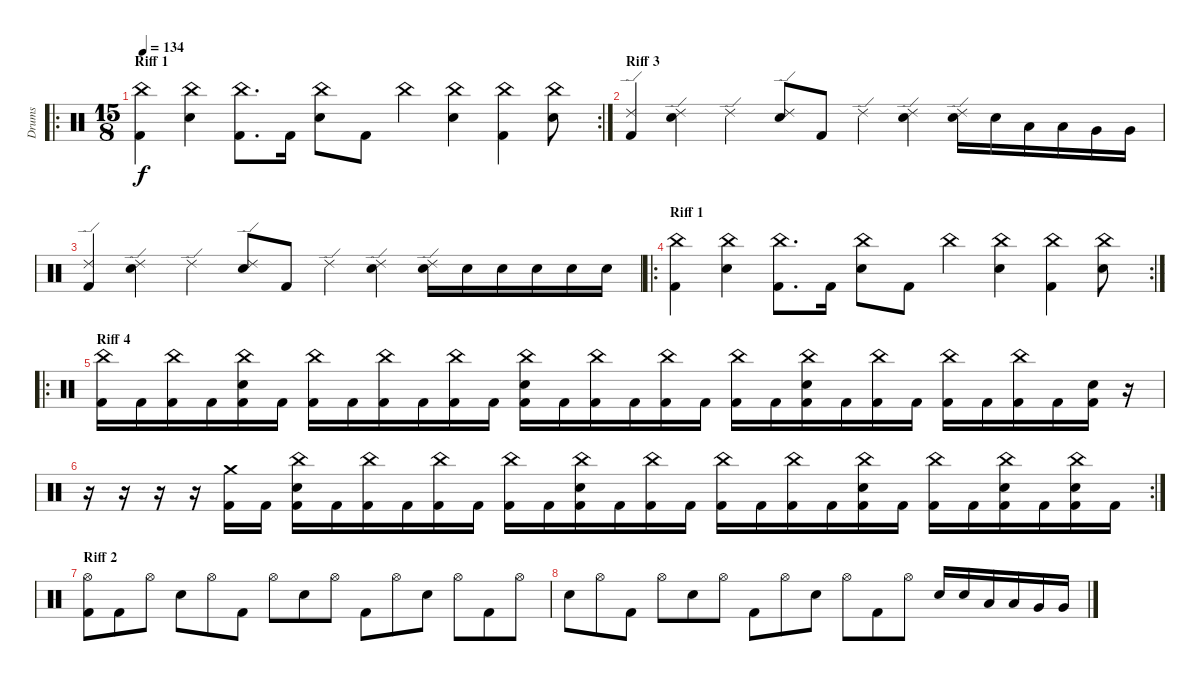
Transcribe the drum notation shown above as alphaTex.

\track ("Drums" "Drums") {instrument percussion}
\staff {score}
\articulation defaults
\ro
\rc 2
\ts (15 8)
\section ("" "Riff 1")
\tempo 134
\clef neutral
\ks c
("Kick (hit) 2" "China (hit)").4{dy f} ("Snare (hit) 2" "China (hit)").4 ("Kick (hit) 2" "China (hit)").8{d} "Kick (hit) 2".16 ("Snare (hit) 2" "China (hit)").8 "Kick (hit) 2".8 "China (hit)".4 ("Snare (hit) 2" "China (hit)").4 ("Kick (hit) 2" "China (hit)").4 ("Snare (hit) 2" "China (hit)").8 |
\section ("" "Riff 3")
("Kick (hit) 2" "Ride (edge) 2").4 ("Snare (hit) 2" "Ride (edge) 2").4 "Ride (edge) 2".4 ("Snare (hit) 2" "Ride (edge) 2").8 "Kick (hit) 2".8 "Ride (edge) 2".4 ("Snare (hit) 2" "Ride (edge) 2").4 ("Snare (hit) 2" "Ride (edge) 2").16 "Snare (hit) 2".16 "Low Tom (hit)".16 "Low Tom (hit)".16 "Very Low Tom (hit)".16 "Very Low Tom (hit)".16 |
("Kick (hit) 2" "Ride (edge) 2").4 ("Snare (hit) 2" "Ride (edge) 2").4 "Ride (edge) 2".4 ("Snare (hit) 2" "Ride (edge) 2").8 "Kick (hit) 2".8 "Ride (edge) 2".4 ("Snare (hit) 2" "Ride (edge) 2").4 ("Snare (hit) 2" "Ride (edge) 2").16 "Snare (hit) 2".16 "Snare (hit) 2".16 "Snare (hit) 2".16 "Snare (hit) 2".16 "Snare (hit) 2".16 |
\ro
\rc 2
\section ("" "Riff 1")
("Kick (hit) 2" "China (hit)").4 ("Snare (hit) 2" "China (hit)").4 ("Kick (hit) 2" "China (hit)").8{d} "Kick (hit) 2".16 ("Snare (hit) 2" "China (hit)").8 "Kick (hit) 2".8 "China (hit)".4 ("Snare (hit) 2" "China (hit)").4 ("Kick (hit) 2" "China (hit)").4 ("Snare (hit) 2" "China (hit)").8 |
\ro
\section ("" "Riff 4")
("Kick (hit) 2" "China (hit)").16 "Kick (hit) 2".16 ("Kick (hit) 2" "China (hit)").16 "Kick (hit) 2".16 ("Kick (hit) 2" "Snare (hit) 2" "China (hit)").16 "Kick (hit) 2".16 ("Kick (hit) 2" "China (hit)").16 "Kick (hit) 2".16 ("Kick (hit) 2" "China (hit)").16 "Kick (hit) 2".16 ("Kick (hit) 2" "China (hit)").16 "Kick (hit) 2".16 ("Kick (hit) 2" "Snare (hit) 2" "China (hit)").16 "Kick (hit) 2".16 ("Kick (hit) 2" "China (hit)").16 "Kick (hit) 2".16 ("Kick (hit) 2" "China (hit)").16 "Kick (hit) 2".16 ("Kick (hit) 2" "China (hit)").16 "Kick (hit) 2".16 ("Kick (hit) 2" "Snare (hit) 2" "China (hit)").16 "Kick (hit) 2".16 ("Kick (hit) 2" "China (hit)").16 "Kick (hit) 2".16 ("Kick (hit) 2" "China (hit)").16 "Kick (hit) 2".16 ("Kick (hit) 2" "China (hit)").16 "Kick (hit) 2".16 ("Kick (hit) 2" "Snare (hit) 2").16 r.16 |
\rc 2
r.16 r.16 r.16 r.16 ("Kick (hit) 2" "Crash medium (hit)").16 "Kick (hit) 2".16 ("Kick (hit) 2" "Snare (hit) 2" "China (hit)").16 "Kick (hit) 2".16 ("Kick (hit) 2" "China (hit)").16 "Kick (hit) 2".16 ("Kick (hit) 2" "China (hit)").16 "Kick (hit) 2".16 ("Kick (hit) 2" "China (hit)").16 "Kick (hit) 2".16 ("Kick (hit) 2" "Snare (hit) 2" "China (hit)").16 "Kick (hit) 2".16 ("Kick (hit) 2" "China (hit)").16 "Kick (hit) 2".16 ("Kick (hit) 2" "China (hit)").16 "Kick (hit) 2".16 ("Kick (hit) 2" "China (hit)").16 "Kick (hit) 2".16 ("Kick (hit) 2" "Snare (hit) 2" "China (hit)").16 "Kick (hit) 2".16 ("Kick (hit) 2" "China (hit)").16 "Kick (hit) 2".16 ("Kick (hit) 2" "Snare (hit) 2" "China (hit)").16 "Kick (hit) 2".16 ("Kick (hit) 2" "Snare (hit) 2" "China (hit)").16 "Kick (hit) 2".16 |
\section ("" "Riff 2")
("Kick (hit) 2" "Hi-Hat (open)").8 "Kick (hit) 2".8 "Hi-Hat (open)".8 "Snare (hit) 2".8 "Hi-Hat (open)".8 "Kick (hit) 2".8 "Hi-Hat (open)".8 "Snare (hit) 2".8 "Hi-Hat (open)".8 "Kick (hit) 2".8 "Hi-Hat (open)".8 "Snare (hit) 2".8 "Hi-Hat (open)".8 "Kick (hit) 2".8 "Hi-Hat (open)".8 |
"Snare (hit) 2".8 "Hi-Hat (open)".8 "Kick (hit) 2".8 "Hi-Hat (open)".8 "Snare (hit) 2".8 "Hi-Hat (open)".8 "Kick (hit) 2".8 "Hi-Hat (open)".8 "Snare (hit) 2".8 "Hi-Hat (open)".8 "Kick (hit) 2".8 "Hi-Hat (open)".8 "Snare (hit) 2".16 "Snare (hit) 2".16 "Low Tom (hit)".16 "Low Tom (hit)".16 "Very Low Tom (hit)".16 "Very Low Tom (hit)".16
